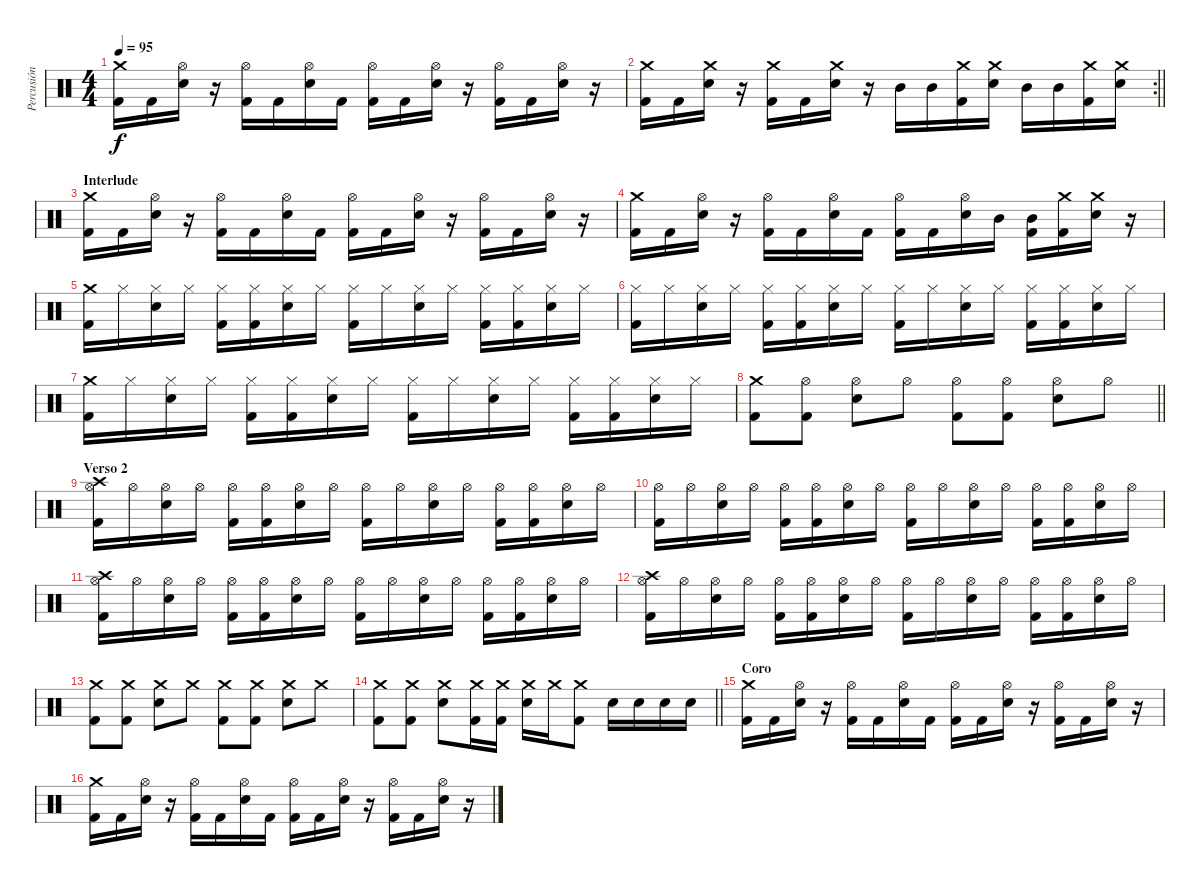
\track ("Percusión" "Percusión") {instrument percussion}
\staff {score}
\articulation defaults
\ts (4 4)
\tempo 95
\clef neutral
\ks c
("Crash medium (hit)" "Kick (hit) 2").16{dy f} "Kick (hit) 2".16 ("Hi-Hat (open)" "Electric Snare (hit)").16 r.16 ("Hi-Hat (open)" "Kick (hit) 2").16 "Kick (hit) 2".16 ("Hi-Hat (open)" "Electric Snare (hit)").16 "Kick (hit) 2".16 ("Hi-Hat (open)" "Kick (hit) 2").16 "Kick (hit) 2".16 ("Hi-Hat (open)" "Electric Snare (hit)").16 r.16 ("Hi-Hat (open)" "Kick (hit) 2").16 "Kick (hit) 2".16 ("Hi-Hat (open)" "Electric Snare (hit)").16 r.16 |
\rc 2
\barLineRight lightlight
("Crash medium (hit)" "Kick (hit) 2").16 "Kick (hit) 2".16 ("Crash medium (hit)" "Electric Snare (hit)").16 r.16 ("Crash medium (hit)" "Kick (hit) 2").16 "Kick (hit) 2".16 ("Crash medium (hit)" "Electric Snare (hit)").16 r.16 "Mid Tom (hit)".16 "Mid Tom (hit)".16 ("Crash medium (hit)" "Kick (hit) 2").16 ("Crash medium (hit)" "Electric Snare (hit)").16 "Mid Tom (hit)".16 "Mid Tom (hit)".16 ("Crash medium (hit)" "Kick (hit) 2").16 ("Crash medium (hit)" "Electric Snare (hit)").16 |
\section ("" "Interlude")
("Crash medium (hit)" "Kick (hit) 2").16 "Kick (hit) 2".16 ("Hi-Hat (open)" "Electric Snare (hit)").16 r.16 ("Hi-Hat (open)" "Kick (hit) 2").16 "Kick (hit) 2".16 ("Hi-Hat (open)" "Electric Snare (hit)").16 "Kick (hit) 2".16 ("Hi-Hat (open)" "Kick (hit) 2").16 "Kick (hit) 2".16 ("Hi-Hat (open)" "Electric Snare (hit)").16 r.16 ("Hi-Hat (open)" "Kick (hit) 2").16 "Kick (hit) 2".16 ("Hi-Hat (open)" "Electric Snare (hit)").16 r.16 |
("Crash medium (hit)" "Kick (hit) 2").16 "Kick (hit) 2".16 ("Hi-Hat (open)" "Electric Snare (hit)").16 r.16 ("Hi-Hat (open)" "Kick (hit) 2").16 "Kick (hit) 2".16 ("Hi-Hat (open)" "Electric Snare (hit)").16 "Kick (hit) 2".16 ("Hi-Hat (open)" "Kick (hit) 2").16 "Kick (hit) 2".16 ("Hi-Hat (open)" "Electric Snare (hit)").16 "Mid Tom (hit)".16 ("Mid Tom (hit)" "Kick (hit) 2").16 ("Crash medium (hit)" "Kick (hit) 2").16 ("Crash medium (hit)" "Electric Snare (hit)").16 r.16 |
("Crash medium (hit)" "Kick (hit) 2").16 "Hi-Hat (closed)".16 ("Hi-Hat (closed)" "Electric Snare (hit)").16 "Hi-Hat (closed)".16 ("Hi-Hat (closed)" "Kick (hit) 2").16 ("Hi-Hat (closed)" "Kick (hit) 2").16 ("Hi-Hat (closed)" "Electric Snare (hit)").16 "Hi-Hat (closed)".16 ("Hi-Hat (closed)" "Kick (hit) 2").16 "Hi-Hat (closed)".16 ("Hi-Hat (closed)" "Electric Snare (hit)").16 "Hi-Hat (closed)".16 ("Hi-Hat (closed)" "Kick (hit) 2").16 ("Hi-Hat (closed)" "Kick (hit) 2").16 ("Hi-Hat (closed)" "Electric Snare (hit)").16 "Hi-Hat (closed)".16 |
("Hi-Hat (closed)" "Kick (hit) 2").16 "Hi-Hat (closed)".16 ("Hi-Hat (closed)" "Electric Snare (hit)").16 "Hi-Hat (closed)".16 ("Hi-Hat (closed)" "Kick (hit) 2").16 ("Hi-Hat (closed)" "Kick (hit) 2").16 ("Hi-Hat (closed)" "Electric Snare (hit)").16 "Hi-Hat (closed)".16 ("Hi-Hat (closed)" "Kick (hit) 2").16 "Hi-Hat (closed)".16 ("Hi-Hat (closed)" "Electric Snare (hit)").16 "Hi-Hat (closed)".16 ("Hi-Hat (closed)" "Kick (hit) 2").16 ("Hi-Hat (closed)" "Kick (hit) 2").16 ("Hi-Hat (closed)" "Electric Snare (hit)").16 "Hi-Hat (closed)".16 |
("Crash medium (hit)" "Kick (hit) 2").16 "Hi-Hat (closed)".16 ("Hi-Hat (closed)" "Electric Snare (hit)").16 "Hi-Hat (closed)".16 ("Hi-Hat (closed)" "Kick (hit) 2").16 ("Hi-Hat (closed)" "Kick (hit) 2").16 ("Hi-Hat (closed)" "Electric Snare (hit)").16 "Hi-Hat (closed)".16 ("Hi-Hat (closed)" "Kick (hit) 2").16 "Hi-Hat (closed)".16 ("Hi-Hat (closed)" "Electric Snare (hit)").16 "Hi-Hat (closed)".16 ("Hi-Hat (closed)" "Kick (hit) 2").16 ("Hi-Hat (closed)" "Kick (hit) 2").16 ("Hi-Hat (closed)" "Electric Snare (hit)").16 "Hi-Hat (closed)".16 |
\barLineRight lightlight
("Crash medium (hit)" "Kick (hit) 2").8 ("Hi-Hat (open)" "Kick (hit) 2").8 ("Hi-Hat (open)" "Electric Snare (hit)").8 "Hi-Hat (open)".8 ("Hi-Hat (open)" "Kick (hit) 2").8 ("Hi-Hat (open)" "Kick (hit) 2").8 ("Hi-Hat (open)" "Electric Snare (hit)").8 "Hi-Hat (open)".8 |
\section ("" "Verso 2")
("Hi-Hat (open)" "Crash high (hit)" "Kick (hit) 2").16 "Hi-Hat (open)".16 ("Hi-Hat (open)" "Electric Snare (hit)").16 "Hi-Hat (open)".16 ("Hi-Hat (open)" "Kick (hit) 2").16 ("Hi-Hat (open)" "Kick (hit) 2").16 ("Hi-Hat (open)" "Electric Snare (hit)").16 "Hi-Hat (open)".16 ("Hi-Hat (open)" "Kick (hit) 2").16 "Hi-Hat (open)".16 ("Hi-Hat (open)" "Electric Snare (hit)").16 "Hi-Hat (open)".16 ("Hi-Hat (open)" "Kick (hit) 2").16 ("Hi-Hat (open)" "Kick (hit) 2").16 ("Hi-Hat (open)" "Electric Snare (hit)").16 "Hi-Hat (open)".16 |
("Hi-Hat (open)" "Kick (hit) 2").16 "Hi-Hat (open)".16 ("Hi-Hat (open)" "Electric Snare (hit)").16 "Hi-Hat (open)".16 ("Hi-Hat (open)" "Kick (hit) 2").16 ("Hi-Hat (open)" "Kick (hit) 2").16 ("Hi-Hat (open)" "Electric Snare (hit)").16 "Hi-Hat (open)".16 ("Hi-Hat (open)" "Kick (hit) 2").16 "Hi-Hat (open)".16 ("Hi-Hat (open)" "Electric Snare (hit)").16 "Hi-Hat (open)".16 ("Hi-Hat (open)" "Kick (hit) 2").16 ("Hi-Hat (open)" "Kick (hit) 2").16 ("Hi-Hat (open)" "Electric Snare (hit)").16 "Hi-Hat (open)".16 |
("Hi-Hat (open)" "Crash high (hit)" "Kick (hit) 2").16 "Hi-Hat (open)".16 ("Hi-Hat (open)" "Electric Snare (hit)").16 "Hi-Hat (open)".16 ("Hi-Hat (open)" "Kick (hit) 2").16 ("Hi-Hat (open)" "Kick (hit) 2").16 ("Hi-Hat (open)" "Electric Snare (hit)").16 "Hi-Hat (open)".16 ("Hi-Hat (open)" "Kick (hit) 2").16 "Hi-Hat (open)".16 ("Hi-Hat (open)" "Electric Snare (hit)").16 "Hi-Hat (open)".16 ("Hi-Hat (open)" "Kick (hit) 2").16 ("Hi-Hat (open)" "Kick (hit) 2").16 ("Hi-Hat (open)" "Electric Snare (hit)").16 "Hi-Hat (open)".16 |
("Hi-Hat (open)" "Crash high (hit)" "Kick (hit) 2").16 "Hi-Hat (open)".16 ("Hi-Hat (open)" "Electric Snare (hit)").16 "Hi-Hat (open)".16 ("Hi-Hat (open)" "Kick (hit) 2").16 ("Hi-Hat (open)" "Kick (hit) 2").16 ("Hi-Hat (open)" "Electric Snare (hit)").16 "Hi-Hat (open)".16 ("Hi-Hat (open)" "Kick (hit) 2").16 "Hi-Hat (open)".16 ("Hi-Hat (open)" "Electric Snare (hit)").16 "Hi-Hat (open)".16 ("Hi-Hat (open)" "Kick (hit) 2").16 ("Hi-Hat (open)" "Kick (hit) 2").16 ("Hi-Hat (open)" "Electric Snare (hit)").16 "Hi-Hat (open)".16 |
("Crash medium (hit)" "Kick (hit) 2").8 ("Crash medium (hit)" "Kick (hit) 2").8 ("Crash medium (hit)" "Electric Snare (hit)").8 "Crash medium (hit)".8 ("Crash medium (hit)" "Kick (hit) 2").8 ("Crash medium (hit)" "Kick (hit) 2").8 ("Crash medium (hit)" "Electric Snare (hit)").8 "Crash medium (hit)".8 |
\barLineRight lightlight
("Crash medium (hit)" "Kick (hit) 2").8 ("Crash medium (hit)" "Kick (hit) 2").8 ("Crash medium (hit)" "Electric Snare (hit)").8 ("Crash medium (hit)" "Kick (hit) 2").16 ("Crash medium (hit)" "Kick (hit) 2").16 ("Crash medium (hit)" "Electric Snare (hit)").16 "Crash medium (hit)".16 ("Crash medium (hit)" "Kick (hit) 2").8 "Electric Snare (hit)".16 "Electric Snare (hit)".16 "Electric Snare (hit)".16 "Electric Snare (hit)".16 |
\section ("" "Coro")
("Crash medium (hit)" "Kick (hit) 2").16 "Kick (hit) 2".16 ("Hi-Hat (open)" "Electric Snare (hit)").16 r.16 ("Hi-Hat (open)" "Kick (hit) 2").16 "Kick (hit) 2".16 ("Hi-Hat (open)" "Electric Snare (hit)").16 "Kick (hit) 2".16 ("Hi-Hat (open)" "Kick (hit) 2").16 "Kick (hit) 2".16 ("Hi-Hat (open)" "Electric Snare (hit)").16 r.16 ("Hi-Hat (open)" "Kick (hit) 2").16 "Kick (hit) 2".16 ("Hi-Hat (open)" "Electric Snare (hit)").16 r.16 |
("Crash medium (hit)" "Kick (hit) 2").16 "Kick (hit) 2".16 ("Hi-Hat (open)" "Electric Snare (hit)").16 r.16 ("Hi-Hat (open)" "Kick (hit) 2").16 "Kick (hit) 2".16 ("Hi-Hat (open)" "Electric Snare (hit)").16 "Kick (hit) 2".16 ("Hi-Hat (open)" "Kick (hit) 2").16 "Kick (hit) 2".16 ("Hi-Hat (open)" "Electric Snare (hit)").16 r.16 ("Hi-Hat (open)" "Kick (hit) 2").16 "Kick (hit) 2".16 ("Hi-Hat (open)" "Electric Snare (hit)").16 r.16
